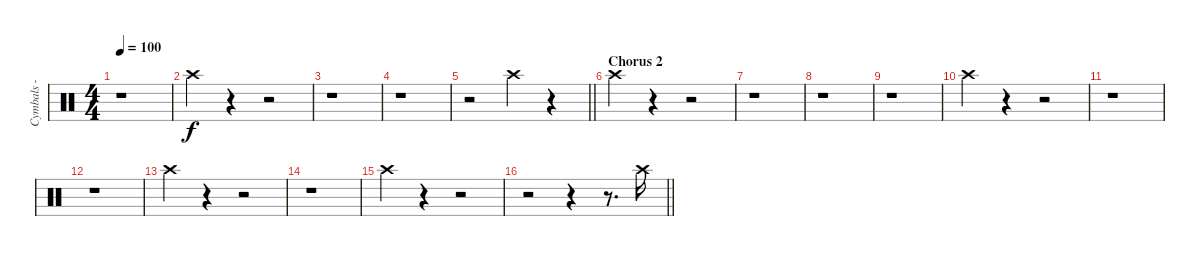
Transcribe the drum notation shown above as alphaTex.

\track ("Cymbals - crash" "Cymbals - ") {instrument percussion}
\staff {score}
\articulation defaults
\ts (4 4)
\tempo 100
\clef neutral
\ks c
r.1{dy mp} |
"Crash high (hit)".4{dy f} r.4 r.2 |
r.1 |
r.1 |
\barLineRight lightlight
r.2 "Crash high (hit)".4 r.4 |
\section ("" "Chorus 2")
"Crash high (hit)".4 r.4 r.2 |
r.1 |
r.1 |
r.1 |
"Crash high (hit)".4 r.4 r.2 |
r.1 |
r.1 |
"Crash high (hit)".4 r.4 r.2 |
r.1 |
"Crash high (hit)".4 r.4 r.2 |
\barLineRight lightlight
r.2 r.4 r.8{d} "Crash high (hit)".16
